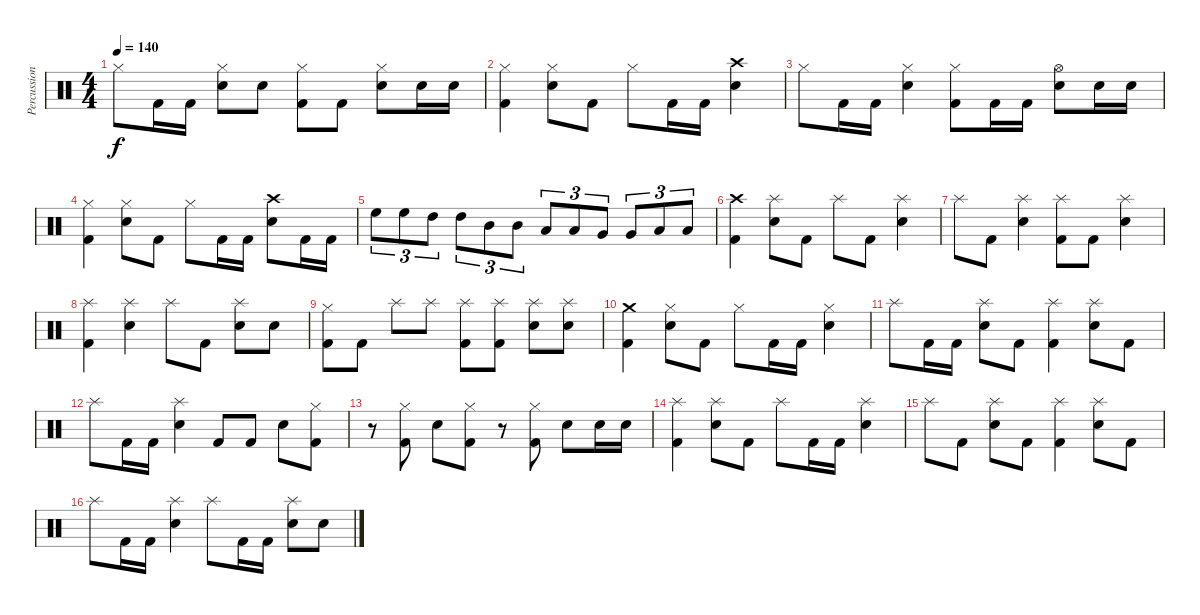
\track ("Percussion" "Percussion") {instrument percussion}
\staff {score}
\articulation defaults
\ts (4 4)
\tempo 140
\clef neutral
\ks c "Hi-Hat (closed)".8{dy f} "Kick (hit) 2".16 "Kick (hit) 2".16
("Snare (hit) 2" "Hi-Hat (closed)").8 "Snare (hit) 2".8 ("Kick (hit) 2" "Hi-Hat (closed)").8 "Kick (hit) 2".8 ("Snare (hit) 2" "Hi-Hat (closed)").8 "Snare (hit) 2".16 "Snare (hit) 2".16 |
("Kick (hit) 2" "Hi-Hat (closed)").4 ("Snare (hit) 2" "Hi-Hat (closed)").8 "Kick (hit) 2".8 "Hi-Hat (closed)".8 "Kick (hit) 2".16 "Kick (hit) 2".16 ("Snare (hit) 2" "Crash high (hit)").4 |
"Hi-Hat (closed)".8 "Kick (hit) 2".16 "Kick (hit) 2".16 ("Snare (hit) 2" "Hi-Hat (closed)").4 ("Kick (hit) 2" "Hi-Hat (closed)").8 "Kick (hit) 2".16 "Kick (hit) 2".16 ("Snare (hit) 2" "Hi-Hat (open)").8 "Snare (hit) 2".16 "Snare (hit) 2".16 |
("Kick (hit) 2" "Hi-Hat (closed)").4 ("Snare (hit) 2" "Hi-Hat (closed)").8 "Kick (hit) 2".8 "Hi-Hat (closed)".8 "Kick (hit) 2".16 "Kick (hit) 2".16 ("Snare (hit) 2" "Crash high (hit)").8 "Kick (hit) 2".16 "Kick (hit) 2".16 |
"High Floor Tom (hit)".8{tu (3 2)} "High Floor Tom (hit)".8{tu (3 2)} "High Tom (hit)".8{tu (3 2)} "High Tom (hit)".8{tu (3 2)} "Mid Tom (hit)".8{tu (3 2)} "Mid Tom (hit)".8{tu (3 2)} "Low Tom (hit)".8{tu (3 2)} "Low Tom (hit)".8{tu (3 2)} "Very Low Tom (hit)".8{tu (3 2)} "Very Low Tom (hit)".8{tu (3 2)} "Low Floor Tom (hit)".8{tu (3 2)} "Low Floor Tom (hit)".8{tu (3 2)} |
("Kick (hit) 2" "Crash high (hit)").4 ("Snare (hit) 2" "Splash (hit)").8 "Kick (hit) 2".8 "Splash (hit)".8 "Kick (hit) 2".8 ("Snare (hit) 2" "Splash (hit)").4 |
"Splash (hit)".8 "Kick (hit) 2".8 ("Snare (hit) 2" "Splash (hit)").4 ("Kick (hit) 2" "Splash (hit)").8 "Kick (hit) 2".8 ("Snare (hit) 2" "Splash (hit)").4 |
("Kick (hit) 2" "Splash (hit)").4 ("Snare (hit) 2" "Splash (hit)").4 "Splash (hit)".8 "Kick (hit) 2".8 ("Snare (hit) 2" "Splash (hit)").8 "Snare (hit) 2".8 |
("Kick (hit) 2" "Hi-Hat (closed)").8 "Kick (hit) 2".8 "Splash (hit)".8 "Splash (hit)".8 ("Kick (hit) 2" "Splash (hit)").8 ("Kick (hit) 2" "Splash (hit)").8 ("Snare (hit) 2" "Splash (hit)").8 ("Snare (hit) 2" "Splash (hit)").8 |
("Kick (hit) 2" "Crash medium (hit)").4 ("Snare (hit) 2" "Hi-Hat (closed)").8 "Kick (hit) 2".8 "Hi-Hat (closed)".8 "Kick (hit) 2".16 "Kick (hit) 2".16 ("Snare (hit) 2" "Hi-Hat (closed)").4 |
"Splash (hit)".8 "Kick (hit) 2".16 "Kick (hit) 2".16 ("Snare (hit) 2" "Splash (hit)").8 "Kick (hit) 2".8 ("Kick (hit) 2" "Splash (hit)").4 ("Snare (hit) 2" "Splash (hit)").8 "Kick (hit) 2".8 |
"Splash (hit)".8 "Kick (hit) 2".16 "Kick (hit) 2".16 ("Snare (hit) 2" "Splash (hit)").4 "Kick (hit) 2".8 "Kick (hit) 2".8 "Snare (hit) 2".8 ("Kick (hit) 2" "Hi-Hat (closed)").8 |
r.8 ("Kick (hit) 2" "Hi-Hat (closed)").8 "Snare (hit) 2".8 ("Kick (hit) 2" "Hi-Hat (closed)").8 r.8 ("Kick (hit) 2" "Hi-Hat (closed)").8 "Snare (hit) 2".8 "Snare (hit) 2".16 "Snare (hit) 2".16 |
("Kick (hit) 2" "Splash (hit)").4 ("Snare (hit) 2" "Splash (hit)").8 "Kick (hit) 2".8 "Splash (hit)".8 "Kick (hit) 2".16 "Kick (hit) 2".16 ("Snare (hit) 2" "Splash (hit)").4 |
"Splash (hit)".8 "Kick (hit) 2".8 ("Snare (hit) 2" "Splash (hit)").8 "Kick (hit) 2".8 ("Kick (hit) 2" "Splash (hit)").4 ("Snare (hit) 2" "Splash (hit)").8 "Kick (hit) 2".8 |
"Splash (hit)".8 "Kick (hit) 2".16 "Kick (hit) 2".16 ("Snare (hit) 2" "Splash (hit)").4 "Splash (hit)".8 "Kick (hit) 2".16 "Kick (hit) 2".16 ("Snare (hit) 2" "Splash (hit)").8 "Snare (hit) 2".8
